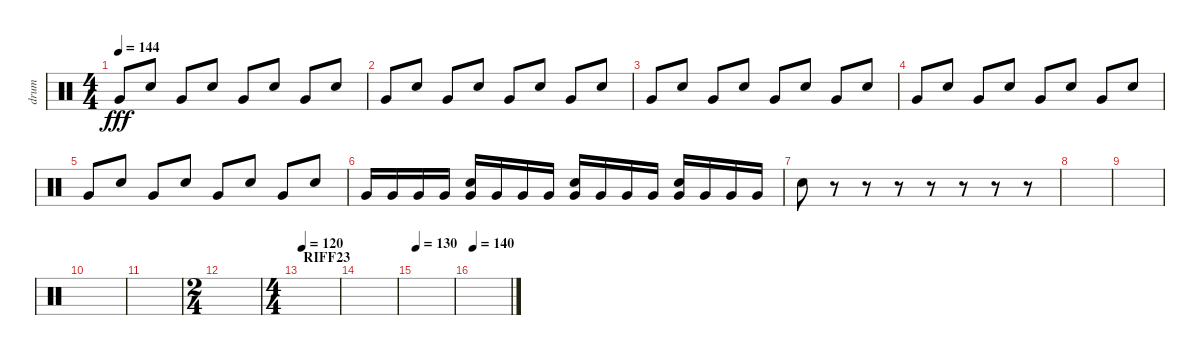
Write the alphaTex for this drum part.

\track ("drum" "drum") {instrument percussion}
\staff {score}
\articulation defaults
\ts (4 4)
\tempo 144
\clef neutral
\ks c "Very Low Tom (hit)".8{dy fff} "Electric Snare (hit)".8 "Very Low Tom (hit)".8 "Electric Snare (hit)".8 "Very Low Tom (hit)".8 "Electric Snare (hit)".8 "Very Low Tom (hit)".8 "Electric Snare (hit)".8
|
"Very Low Tom (hit)".8 "Electric Snare (hit)".8 "Very Low Tom (hit)".8 "Electric Snare (hit)".8 "Very Low Tom (hit)".8 "Electric Snare (hit)".8 "Very Low Tom (hit)".8 "Electric Snare (hit)".8 |
"Very Low Tom (hit)".8 "Electric Snare (hit)".8 "Very Low Tom (hit)".8 "Electric Snare (hit)".8 "Very Low Tom (hit)".8 "Electric Snare (hit)".8 "Very Low Tom (hit)".8 "Electric Snare (hit)".8 |
"Very Low Tom (hit)".8 "Electric Snare (hit)".8 "Very Low Tom (hit)".8 "Electric Snare (hit)".8 "Very Low Tom (hit)".8 "Electric Snare (hit)".8 "Very Low Tom (hit)".8 "Electric Snare (hit)".8 |
"Very Low Tom (hit)".8 "Electric Snare (hit)".8 "Very Low Tom (hit)".8 "Electric Snare (hit)".8 "Very Low Tom (hit)".8 "Electric Snare (hit)".8 "Very Low Tom (hit)".8 "Electric Snare (hit)".8 |
"Very Low Tom (hit)".16 "Very Low Tom (hit)".16 "Very Low Tom (hit)".16 "Very Low Tom (hit)".16 ("Very Low Tom (hit)" "Electric Snare (hit)").16 "Very Low Tom (hit)".16 "Very Low Tom (hit)".16 "Very Low Tom (hit)".16 ("Very Low Tom (hit)" "Electric Snare (hit)").16 "Very Low Tom (hit)".16 "Very Low Tom (hit)".16 "Very Low Tom (hit)".16 ("Very Low Tom (hit)" "Electric Snare (hit)").16 "Very Low Tom (hit)".16 "Very Low Tom (hit)".16 "Very Low Tom (hit)".16 |
"Electric Snare (hit)".8 r.8 r.8 r.8 r.8 r.8 r.8 r.8 |
|
|
|
|
\ts (2 4)
|
\ts (4 4)
\section ("" "RIFF23")
\tempo 120
|
|
\tempo 130
|
\tempo 140
